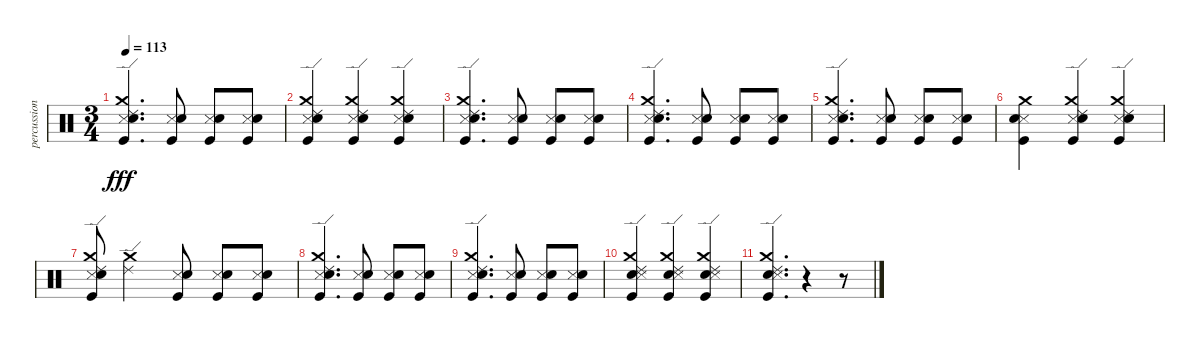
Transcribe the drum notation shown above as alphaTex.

\track ("percussion" "percussion") {instrument percussion}
\staff {score}
\articulation defaults
\ts (3 4)
\tempo 113
\clef neutral
\ks c
("Ride (edge) 2" "Crash medium (hit)" "Metronome (hit)" "Electric Snare (hit)" "Kick (hit)").4{d dy fff} ("Metronome (hit)" "Electric Snare (hit)" "Kick (hit)").8 ("Metronome (hit)" "Electric Snare (hit)" "Kick (hit)").8 ("Metronome (hit)" "Electric Snare (hit)" "Kick (hit)").8 |
("Ride (edge) 2" "Crash medium (hit)" "Metronome (hit)" "Electric Snare (hit)" "Kick (hit)").4 ("Ride (edge) 2" "Crash medium (hit)" "Metronome (hit)" "Electric Snare (hit)" "Kick (hit)").4 ("Ride (edge) 2" "Crash medium (hit)" "Metronome (hit)" "Electric Snare (hit)" "Kick (hit)").4 |
("Ride (edge) 2" "Crash medium (hit)" "Metronome (hit)" "Electric Snare (hit)" "Kick (hit)").4{d} ("Metronome (hit)" "Electric Snare (hit)" "Kick (hit)").8 ("Metronome (hit)" "Electric Snare (hit)" "Kick (hit)").8 ("Metronome (hit)" "Electric Snare (hit)" "Kick (hit)").8 |
("Ride (edge) 2" "Crash medium (hit)" "Metronome (hit)" "Electric Snare (hit)" "Kick (hit)").4{d} ("Metronome (hit)" "Electric Snare (hit)" "Kick (hit)").8 ("Metronome (hit)" "Electric Snare (hit)" "Kick (hit)").8 ("Metronome (hit)" "Electric Snare (hit)" "Kick (hit)").8 |
("Ride (edge) 2" "Crash medium (hit)" "Metronome (hit)" "Electric Snare (hit)" "Kick (hit)").4{d} ("Metronome (hit)" "Electric Snare (hit)" "Kick (hit)").8 ("Metronome (hit)" "Electric Snare (hit)" "Kick (hit)").8 ("Metronome (hit)" "Electric Snare (hit)" "Kick (hit)").8 |
("Crash medium (hit)" "Metronome (hit)" "Electric Snare (hit)" "Kick (hit)").4 ("Ride (edge) 2" "Crash medium (hit)" "Metronome (hit)" "Electric Snare (hit)" "Kick (hit)").4 ("Ride (edge) 2" "Crash medium (hit)" "Metronome (hit)" "Electric Snare (hit)" "Kick (hit)").4 |
("Ride (edge) 2" "Crash medium (hit)" "Metronome (hit)" "Electric Snare (hit)" "Kick (hit)").8 ("Ride (edge) 2" "Crash medium (hit)").4 ("Metronome (hit)" "Electric Snare (hit)" "Kick (hit)").8 ("Metronome (hit)" "Electric Snare (hit)" "Kick (hit)").8 ("Metronome (hit)" "Electric Snare (hit)" "Kick (hit)").8 |
("Ride (edge) 2" "Crash medium (hit)" "Metronome (hit)" "Electric Snare (hit)" "Kick (hit)").4{d} ("Metronome (hit)" "Electric Snare (hit)" "Kick (hit)").8 ("Metronome (hit)" "Electric Snare (hit)" "Kick (hit)").8 ("Metronome (hit)" "Electric Snare (hit)" "Kick (hit)").8 |
("Ride (edge) 2" "Crash medium (hit)" "Metronome (hit)" "Electric Snare (hit)" "Kick (hit)").4{d} ("Metronome (hit)" "Electric Snare (hit)" "Kick (hit)").8 ("Metronome (hit)" "Electric Snare (hit)" "Kick (hit)").8 ("Metronome (hit)" "Electric Snare (hit)" "Kick (hit)").8 |
("Ride (edge) 2" "Crash medium (hit)" "Electric Snare (hit)" "Metronome (hit)" "Kick (hit)").4 ("Ride (edge) 2" "Crash medium (hit)" "Electric Snare (hit)" "Metronome (hit)" "Kick (hit)").4 ("Ride (edge) 2" "Crash medium (hit)" "Electric Snare (hit)" "Metronome (hit)" "Kick (hit)").4 |
("Ride (edge) 2" "Crash medium (hit)" "Electric Snare (hit)" "Metronome (hit)" "Kick (hit)").4{d} r.4 r.8
